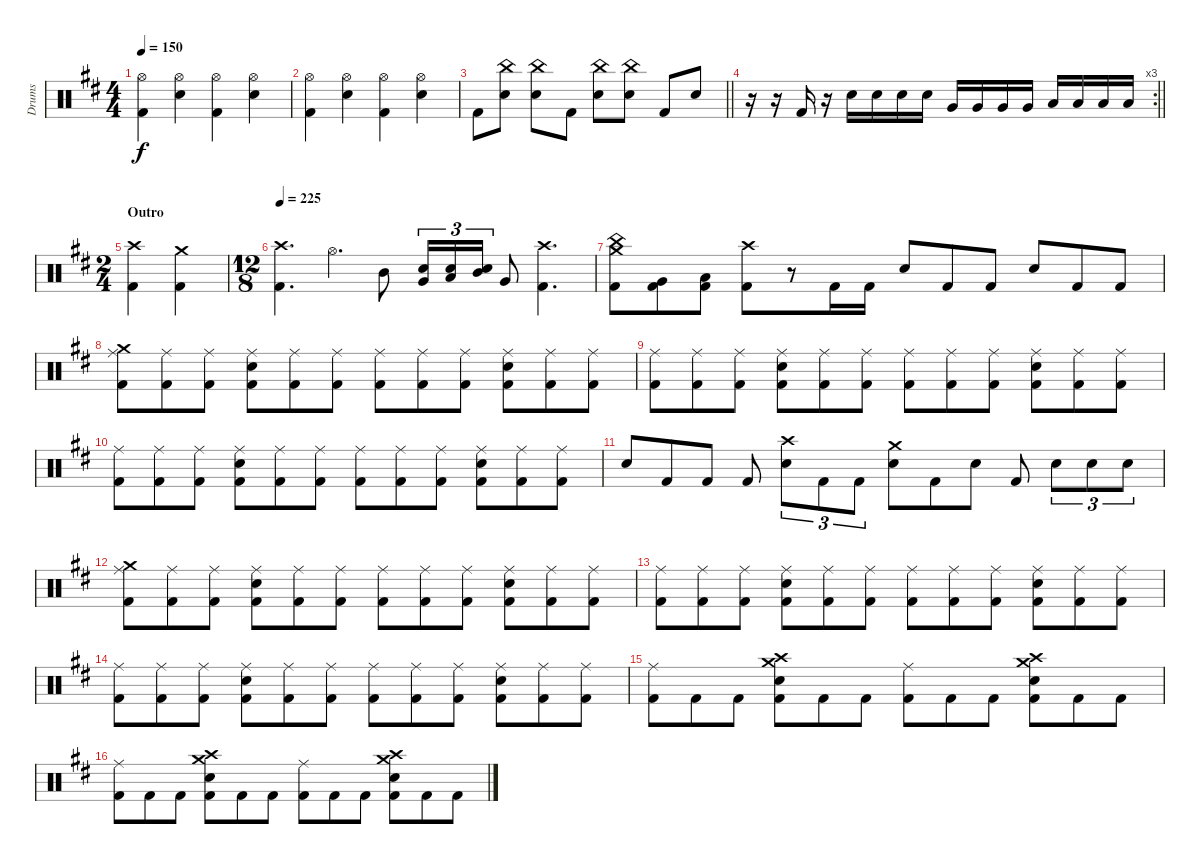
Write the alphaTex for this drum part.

\track ("Drums" "Drums") {instrument percussion}
\staff {score}
\articulation defaults
\ts (4 4)
\tempo 150
\clef neutral
\ks d
("Hi-Hat (open)" "Kick (hit) 2").4{dy f} ("Hi-Hat (open)" "Electric Snare (hit)").4 ("Hi-Hat (open)" "Kick (hit) 2").4 ("Hi-Hat (open)" "Electric Snare (hit)").4 |
("Hi-Hat (open)" "Kick (hit) 2").4 ("Hi-Hat (open)" "Electric Snare (hit)").4 ("Hi-Hat (open)" "Kick (hit) 2").4 ("Hi-Hat (open)" "Electric Snare (hit)").4 |
\barLineRight lightlight "Kick (hit) 2".8
("China (hit)" "Electric Snare (hit)").8 ("China (hit)" "Electric Snare (hit)").8 "Kick (hit) 2".8 ("China (hit)" "Electric Snare (hit)").8 ("China (hit)" "Electric Snare (hit)").8 "Kick (hit) 2".8 "Electric Snare (hit)".8 |
\rc 3
\barLineRight lightlight
r.16 r.16 "Kick (hit) 2".16 r.16 "Electric Snare (hit)".16 "Electric Snare (hit)".16 "Electric Snare (hit)".16 "Electric Snare (hit)".16 "Very Low Tom (hit)".16 "Very Low Tom (hit)".16 "Very Low Tom (hit)".16 "Very Low Tom (hit)".16 "Low Tom (hit)".16 "Low Tom (hit)".16 "Low Tom (hit)".16 "Low Tom (hit)".16 |
\ts (2 4)
\section ("" "Outro")
("Crash high (hit)" "Kick (hit) 2").4 ("Crash medium (hit)" "Kick (hit) 2").4 |
\ts (12 8)
\tempo 225
("Crash high (hit)" "Kick (hit) 2").4{d} "Hi-Hat (open)".4{d} "Mid Tom (hit)".8 ("Very Low Tom (hit)" "Electric Snare (hit)").16{tu (3 2)} ("Low Tom (hit)" "Electric Snare (hit)").16{tu (3 2)} ("Mid Tom (hit)" "Electric Snare (hit)").16{tu (3 2)} "Very Low Tom (hit)".8 ("Crash high (hit)" "Kick (hit) 2").4{d} |
("Crash medium (hit)" "China (hit)" "Kick (hit) 2").8 ("Very Low Tom (hit)" "Kick (hit) 2").8 ("Low Floor Tom (hit)" "Kick (hit) 2").8 ("Crash high (hit)" "Kick (hit) 2").8 r.8 "Kick (hit) 2".16 "Kick (hit) 2".16 "Electric Snare (hit)".8 "Kick (hit) 2".8 "Kick (hit) 2".8 "Electric Snare (hit)".8 "Kick (hit) 2".8 "Kick (hit) 2".8 |
("Crash medium (hit)" "Ride (middle)" "Kick (hit) 2").8 ("Ride (middle)" "Kick (hit) 2").8 ("Ride (middle)" "Kick (hit) 2").8 ("Ride (middle)" "Electric Snare (hit)" "Kick (hit) 2").8 ("Ride (middle)" "Kick (hit) 2").8 ("Ride (middle)" "Kick (hit) 2").8 ("Ride (middle)" "Kick (hit) 2").8 ("Ride (middle)" "Kick (hit) 2").8 ("Ride (middle)" "Kick (hit) 2").8 ("Ride (middle)" "Electric Snare (hit)" "Kick (hit) 2").8 ("Ride (middle)" "Kick (hit) 2").8 ("Ride (middle)" "Kick (hit) 2").8 |
("Ride (middle)" "Kick (hit) 2").8 ("Ride (middle)" "Kick (hit) 2").8 ("Ride (middle)" "Kick (hit) 2").8 ("Ride (middle)" "Electric Snare (hit)" "Kick (hit) 2").8 ("Ride (middle)" "Kick (hit) 2").8 ("Ride (middle)" "Kick (hit) 2").8 ("Ride (middle)" "Kick (hit) 2").8 ("Ride (middle)" "Kick (hit) 2").8 ("Ride (middle)" "Kick (hit) 2").8 ("Ride (middle)" "Electric Snare (hit)" "Kick (hit) 2").8 ("Ride (middle)" "Kick (hit) 2").8 ("Ride (middle)" "Kick (hit) 2").8 |
("Ride (middle)" "Kick (hit) 2").8 ("Ride (middle)" "Kick (hit) 2").8 ("Ride (middle)" "Kick (hit) 2").8 ("Ride (middle)" "Electric Snare (hit)" "Kick (hit) 2").8 ("Ride (middle)" "Kick (hit) 2").8 ("Ride (middle)" "Kick (hit) 2").8 ("Ride (middle)" "Kick (hit) 2").8 ("Ride (middle)" "Kick (hit) 2").8 ("Ride (middle)" "Kick (hit) 2").8 ("Ride (middle)" "Electric Snare (hit)" "Kick (hit) 2").8 ("Ride (middle)" "Kick (hit) 2").8 ("Ride (middle)" "Kick (hit) 2").8 |
"Electric Snare (hit)".8 "Kick (hit) 2".8 "Kick (hit) 2".8 "Kick (hit) 2".8 ("Crash high (hit)" "Electric Snare (hit)").8{tu (3 2)} "Kick (hit) 2".8{tu (3 2)} "Kick (hit) 2".8{tu (3 2)} ("Crash medium (hit)" "Electric Snare (hit)").8 "Kick (hit) 2".8 "Electric Snare (hit)".8 "Kick (hit) 2".8 "Electric Snare (hit)".8{tu (3 2)} "Electric Snare (hit)".8{tu (3 2)} "Electric Snare (hit)".8{tu (3 2)} |
("Crash medium (hit)" "Ride (middle)" "Kick (hit) 2").8 ("Ride (middle)" "Kick (hit) 2").8 ("Ride (middle)" "Kick (hit) 2").8 ("Ride (middle)" "Electric Snare (hit)" "Kick (hit) 2").8 ("Ride (middle)" "Kick (hit) 2").8 ("Ride (middle)" "Kick (hit) 2").8 ("Ride (middle)" "Kick (hit) 2").8 ("Ride (middle)" "Kick (hit) 2").8 ("Ride (middle)" "Kick (hit) 2").8 ("Ride (middle)" "Electric Snare (hit)" "Kick (hit) 2").8 ("Ride (middle)" "Kick (hit) 2").8 ("Ride (middle)" "Kick (hit) 2").8 |
("Ride (middle)" "Kick (hit) 2").8 ("Ride (middle)" "Kick (hit) 2").8 ("Ride (middle)" "Kick (hit) 2").8 ("Ride (middle)" "Electric Snare (hit)" "Kick (hit) 2").8 ("Ride (middle)" "Kick (hit) 2").8 ("Ride (middle)" "Kick (hit) 2").8 ("Ride (middle)" "Kick (hit) 2").8 ("Ride (middle)" "Kick (hit) 2").8 ("Ride (middle)" "Kick (hit) 2").8 ("Ride (middle)" "Electric Snare (hit)" "Kick (hit) 2").8 ("Ride (middle)" "Kick (hit) 2").8 ("Ride (middle)" "Kick (hit) 2").8 |
("Ride (middle)" "Kick (hit) 2").8 ("Ride (middle)" "Kick (hit) 2").8 ("Ride (middle)" "Kick (hit) 2").8 ("Ride (middle)" "Electric Snare (hit)" "Kick (hit) 2").8 ("Ride (middle)" "Kick (hit) 2").8 ("Ride (middle)" "Kick (hit) 2").8 ("Ride (middle)" "Kick (hit) 2").8 ("Ride (middle)" "Kick (hit) 2").8 ("Ride (middle)" "Kick (hit) 2").8 ("Ride (middle)" "Electric Snare (hit)" "Kick (hit) 2").8 ("Ride (middle)" "Kick (hit) 2").8 ("Ride (middle)" "Kick (hit) 2").8 |
("Ride (middle)" "Kick (hit) 2").8 "Kick (hit) 2".8 "Kick (hit) 2".8 ("Crash high (hit)" "Crash medium (hit)" "Electric Snare (hit)" "Kick (hit) 2").8 "Kick (hit) 2".8 "Kick (hit) 2".8 ("Ride (middle)" "Kick (hit) 2").8 "Kick (hit) 2".8 "Kick (hit) 2".8 ("Crash high (hit)" "Crash medium (hit)" "Electric Snare (hit)" "Kick (hit) 2").8 "Kick (hit) 2".8 "Kick (hit) 2".8 |
("Ride (middle)" "Kick (hit) 2").8 "Kick (hit) 2".8 "Kick (hit) 2".8 ("Crash high (hit)" "Crash medium (hit)" "Electric Snare (hit)" "Kick (hit) 2").8 "Kick (hit) 2".8 "Kick (hit) 2".8 ("Ride (middle)" "Kick (hit) 2").8 "Kick (hit) 2".8 "Kick (hit) 2".8 ("Crash high (hit)" "Crash medium (hit)" "Electric Snare (hit)" "Kick (hit) 2").8 "Kick (hit) 2".8 "Kick (hit) 2".8
